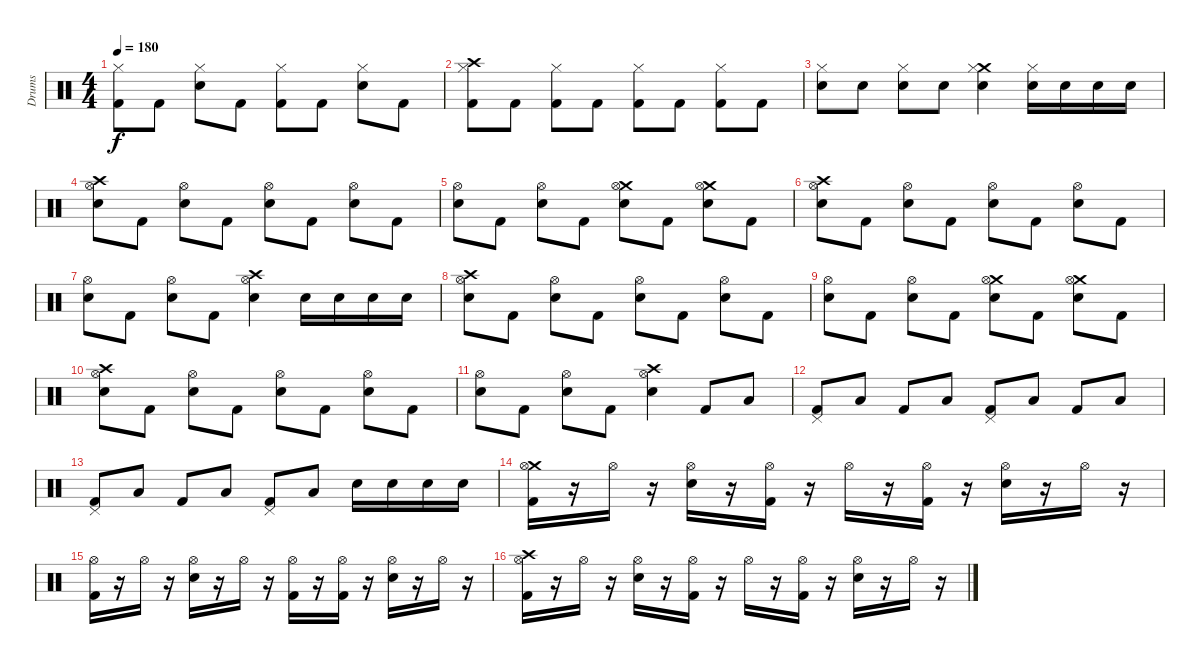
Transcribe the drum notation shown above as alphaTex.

\track ("Drums" "Drums") {instrument percussion}
\staff {score}
\articulation defaults
\ts (4 4)
\tempo 180
\clef neutral
\ks c
("Hi-Hat (closed)" "Kick (hit) 2").8{dy f} "Kick (hit) 2".8 ("Hi-Hat (closed)" "Electric Snare (hit)").8 "Kick (hit) 2".8 ("Hi-Hat (closed)" "Kick (hit) 2").8 "Kick (hit) 2".8 ("Hi-Hat (closed)" "Electric Snare (hit)").8 "Kick (hit) 2".8 |
("Crash high (hit)" "Hi-Hat (closed)" "Kick (hit) 2").8 "Kick (hit) 2".8 ("Hi-Hat (closed)" "Kick (hit) 2").8 "Kick (hit) 2".8 ("Hi-Hat (closed)" "Kick (hit) 2").8 "Kick (hit) 2".8 ("Hi-Hat (closed)" "Kick (hit) 2").8 "Kick (hit) 2".8 |
("Hi-Hat (closed)" "Electric Snare (hit)").8 "Electric Snare (hit)".8 ("Hi-Hat (closed)" "Electric Snare (hit)").8 "Electric Snare (hit)".8 ("Crash medium (hit)" "Hi-Hat (closed)" "Electric Snare (hit)").4 ("Hi-Hat (closed)" "Electric Snare (hit)").16 "Electric Snare (hit)".16 "Electric Snare (hit)".16 "Electric Snare (hit)".16 |
("Crash high (hit)" "Hi-Hat (open)" "Electric Snare (hit)").8 "Kick (hit) 2".8 ("Hi-Hat (open)" "Electric Snare (hit)").8 "Kick (hit) 2".8 ("Hi-Hat (open)" "Electric Snare (hit)").8 "Kick (hit) 2".8 ("Hi-Hat (open)" "Electric Snare (hit)").8 "Kick (hit) 2".8 |
("Hi-Hat (open)" "Electric Snare (hit)").8 "Kick (hit) 2".8 ("Hi-Hat (open)" "Electric Snare (hit)").8 "Kick (hit) 2".8 ("Crash medium (hit)" "Hi-Hat (open)" "Electric Snare (hit)").8 "Kick (hit) 2".8 ("Crash medium (hit)" "Hi-Hat (open)" "Electric Snare (hit)").8 "Kick (hit) 2".8 |
("Crash high (hit)" "Hi-Hat (open)" "Electric Snare (hit)").8 "Kick (hit) 2".8 ("Hi-Hat (open)" "Electric Snare (hit)").8 "Kick (hit) 2".8 ("Hi-Hat (open)" "Electric Snare (hit)").8 "Kick (hit) 2".8 ("Hi-Hat (open)" "Electric Snare (hit)").8 "Kick (hit) 2".8 |
("Hi-Hat (open)" "Electric Snare (hit)").8 "Kick (hit) 2".8 ("Hi-Hat (open)" "Electric Snare (hit)").8 "Kick (hit) 2".8 ("Crash high (hit)" "Hi-Hat (open)" "Electric Snare (hit)").4 "Electric Snare (hit)".16 "Electric Snare (hit)".16 "Electric Snare (hit)".16 "Electric Snare (hit)".16 |
("Crash high (hit)" "Hi-Hat (open)" "Electric Snare (hit)").8 "Kick (hit) 2".8 ("Hi-Hat (open)" "Electric Snare (hit)").8 "Kick (hit) 2".8 ("Hi-Hat (open)" "Electric Snare (hit)").8 "Kick (hit) 2".8 ("Hi-Hat (open)" "Electric Snare (hit)").8 "Kick (hit) 2".8 |
("Hi-Hat (open)" "Electric Snare (hit)").8 "Kick (hit) 2".8 ("Hi-Hat (open)" "Electric Snare (hit)").8 "Kick (hit) 2".8 ("Crash medium (hit)" "Hi-Hat (open)" "Electric Snare (hit)").8 "Kick (hit) 2".8 ("Crash medium (hit)" "Hi-Hat (open)" "Electric Snare (hit)").8 "Kick (hit) 2".8 |
("Crash high (hit)" "Hi-Hat (open)" "Electric Snare (hit)").8 "Kick (hit) 2".8 ("Hi-Hat (open)" "Electric Snare (hit)").8 "Kick (hit) 2".8 ("Hi-Hat (open)" "Electric Snare (hit)").8 "Kick (hit) 2".8 ("Hi-Hat (open)" "Electric Snare (hit)").8 "Kick (hit) 2".8 |
("Hi-Hat (open)" "Electric Snare (hit)").8 "Kick (hit) 2".8 ("Hi-Hat (open)" "Electric Snare (hit)").8 "Kick (hit) 2".8 ("Crash high (hit)" "Hi-Hat (open)" "Electric Snare (hit)").4 "Kick (hit) 2".8 "Low Floor Tom (hit)".8 |
("Pedal Hi-Hat (hit)" "Kick (hit) 2").8 "Low Floor Tom (hit)".8 "Kick (hit) 2".8 "Low Floor Tom (hit)".8 ("Pedal Hi-Hat (hit)" "Kick (hit) 2").8 "Low Floor Tom (hit)".8 "Kick (hit) 2".8 "Low Floor Tom (hit)".8 |
("Pedal Hi-Hat (hit)" "Kick (hit) 2").8 "Low Floor Tom (hit)".8 "Kick (hit) 2".8 "Low Floor Tom (hit)".8 ("Pedal Hi-Hat (hit)" "Kick (hit) 2").8 "Low Floor Tom (hit)".8 "Electric Snare (hit)".16 "Electric Snare (hit)".16 "Electric Snare (hit)".16 "Electric Snare (hit)".16 |
("Crash medium (hit)" "Hi-Hat (open)" "Kick (hit) 2").16 r.16 "Hi-Hat (open)".16 r.16 ("Hi-Hat (open)" "Electric Snare (hit)").16 r.16 ("Hi-Hat (open)" "Kick (hit) 2").16 r.16 "Hi-Hat (open)".16 r.16 ("Hi-Hat (open)" "Kick (hit) 2").16 r.16 ("Hi-Hat (open)" "Electric Snare (hit)").16 r.16 "Hi-Hat (open)".16 r.16 |
("Hi-Hat (open)" "Kick (hit) 2").16 r.16 "Hi-Hat (open)".16 r.16 ("Hi-Hat (open)" "Electric Snare (hit)").16 r.16 "Hi-Hat (open)".16 r.16 ("Hi-Hat (open)" "Kick (hit) 2").16 r.16 ("Hi-Hat (open)" "Kick (hit) 2").16 r.16 ("Hi-Hat (open)" "Electric Snare (hit)").16 r.16 "Hi-Hat (open)".16 r.16 |
("Crash high (hit)" "Hi-Hat (open)" "Kick (hit) 2").16 r.16 "Hi-Hat (open)".16 r.16 ("Hi-Hat (open)" "Electric Snare (hit)").16 r.16 ("Hi-Hat (open)" "Kick (hit) 2").16 r.16 "Hi-Hat (open)".16 r.16 ("Hi-Hat (open)" "Kick (hit) 2").16 r.16 ("Hi-Hat (open)" "Electric Snare (hit)").16 r.16 "Hi-Hat (open)".16 r.16
